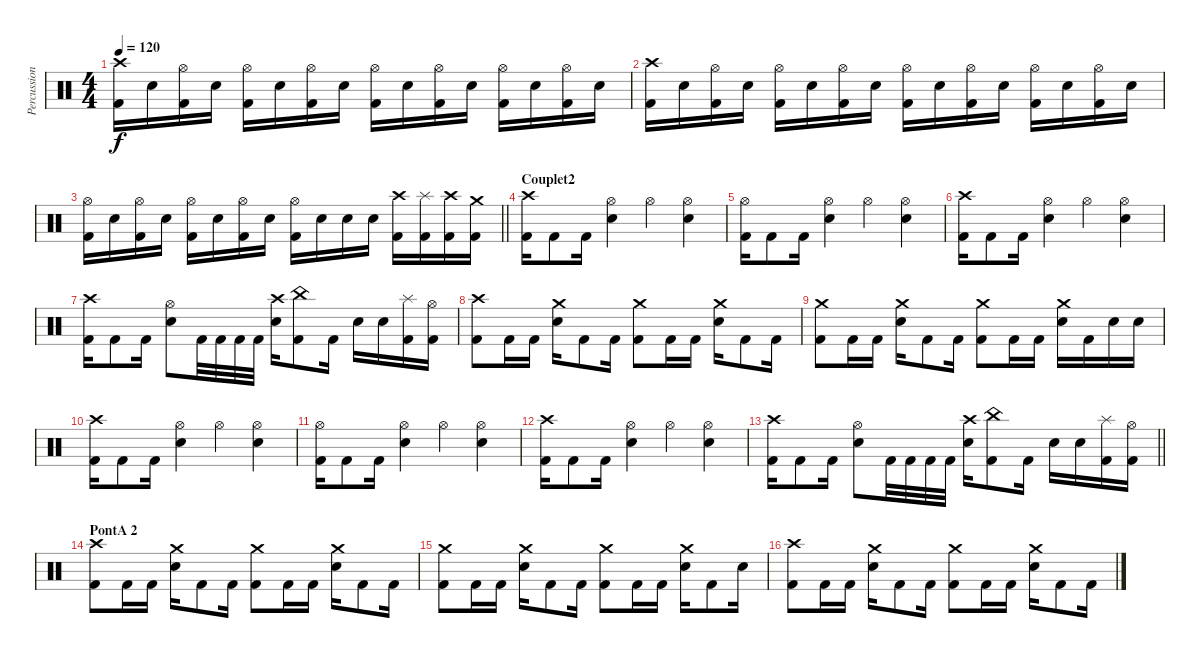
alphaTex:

\track ("Percussion" "Percussion") {instrument percussion}
\staff {score}
\articulation defaults
\ts (4 4)
\tempo 120
\clef neutral
\ks c
("Crash high (hit)" "Kick (hit) 2").16{dy f} "Electric Snare (hit)".16 ("Hi-Hat (open)" "Kick (hit) 2").16 "Electric Snare (hit)".16 ("Hi-Hat (open)" "Kick (hit) 2").16 "Electric Snare (hit)".16 ("Hi-Hat (open)" "Kick (hit) 2").16 "Electric Snare (hit)".16 ("Hi-Hat (open)" "Kick (hit) 2").16 "Electric Snare (hit)".16 ("Hi-Hat (open)" "Kick (hit) 2").16 "Electric Snare (hit)".16 ("Hi-Hat (open)" "Kick (hit) 2").16 "Electric Snare (hit)".16 ("Hi-Hat (open)" "Kick (hit) 2").16 "Electric Snare (hit)".16 |
("Crash high (hit)" "Kick (hit) 2").16 "Electric Snare (hit)".16 ("Hi-Hat (open)" "Kick (hit) 2").16 "Electric Snare (hit)".16 ("Hi-Hat (open)" "Kick (hit) 2").16 "Electric Snare (hit)".16 ("Hi-Hat (open)" "Kick (hit) 2").16 "Electric Snare (hit)".16 ("Hi-Hat (open)" "Kick (hit) 2").16 "Electric Snare (hit)".16 ("Hi-Hat (open)" "Kick (hit) 2").16 "Electric Snare (hit)".16 ("Hi-Hat (open)" "Kick (hit) 2").16 "Electric Snare (hit)".16 ("Hi-Hat (open)" "Kick (hit) 2").16 "Electric Snare (hit)".16 |
\barLineRight lightlight
("Hi-Hat (open)" "Kick (hit) 2").16 "Electric Snare (hit)".16 ("Hi-Hat (open)" "Kick (hit) 2").16 "Electric Snare (hit)".16 ("Hi-Hat (open)" "Kick (hit) 2").16 "Electric Snare (hit)".16 ("Hi-Hat (open)" "Kick (hit) 2").16 "Electric Snare (hit)".16 ("Hi-Hat (open)" "Kick (hit) 2").16 "Electric Snare (hit)".16 "Electric Snare (hit)".16 "Electric Snare (hit)".16 ("Crash high (hit)" "Kick (hit) 2").16 ("Splash (hit)" "Kick (hit) 2").16 ("Crash high (hit)" "Kick (hit) 2").16 ("Crash medium (hit)" "Kick (hit) 2").16 |
\section ("" "Couplet2")
("Crash high (hit)" "Kick (hit) 2").16 "Kick (hit) 2".8 "Kick (hit) 2".16 ("Hi-Hat (open)" "Electric Snare (hit)").4 "Hi-Hat (open)".4 ("Hi-Hat (open)" "Electric Snare (hit)").4 |
("Hi-Hat (open)" "Kick (hit) 2").16 "Kick (hit) 2".8 "Kick (hit) 2".16 ("Hi-Hat (open)" "Electric Snare (hit)").4 "Hi-Hat (open)".4 ("Hi-Hat (open)" "Electric Snare (hit)").4 |
("Crash high (hit)" "Kick (hit) 2").16 "Kick (hit) 2".8 "Kick (hit) 2".16 ("Hi-Hat (open)" "Electric Snare (hit)").4 "Hi-Hat (open)".4 ("Hi-Hat (open)" "Electric Snare (hit)").4 |
("Crash high (hit)" "Kick (hit) 2").16 "Kick (hit) 2".8 "Kick (hit) 2".16 ("Hi-Hat (open)" "Electric Snare (hit)").8 "Kick (hit) 2".32 "Kick (hit) 2".32 "Kick (hit) 2".32 "Kick (hit) 2".32 ("Crash high (hit)" "Electric Snare (hit)").16 ("China (hit)" "Kick (hit) 2").8 "Kick (hit) 2".16 "Electric Snare (hit)".16 "Electric Snare (hit)".16 ("Splash (hit)" "Kick (hit) 2").16 ("Hi-Hat (open)" "Kick (hit) 2").16 |
("Crash high (hit)" "Kick (hit) 2").8 "Kick (hit) 2".16 "Kick (hit) 2".16 ("Crash medium (hit)" "Electric Snare (hit)").16 "Kick (hit) 2".8 "Kick (hit) 2".16 ("Crash medium (hit)" "Kick (hit) 2").8 "Kick (hit) 2".16 "Kick (hit) 2".16 ("Crash medium (hit)" "Electric Snare (hit)").16 "Kick (hit) 2".8 "Kick (hit) 2".16 |
("Crash medium (hit)" "Kick (hit) 2").8 "Kick (hit) 2".16 "Kick (hit) 2".16 ("Crash medium (hit)" "Electric Snare (hit)").16 "Kick (hit) 2".8 "Kick (hit) 2".16 ("Crash medium (hit)" "Kick (hit) 2").8 "Kick (hit) 2".16 "Kick (hit) 2".16 ("Crash medium (hit)" "Electric Snare (hit)").16 "Kick (hit) 2".16 "Electric Snare (hit)".16 "Electric Snare (hit)".16 |
("Crash high (hit)" "Kick (hit) 2").16 "Kick (hit) 2".8 "Kick (hit) 2".16 ("Hi-Hat (open)" "Electric Snare (hit)").4 "Hi-Hat (open)".4 ("Hi-Hat (open)" "Electric Snare (hit)").4 |
("Hi-Hat (open)" "Kick (hit) 2").16 "Kick (hit) 2".8 "Kick (hit) 2".16 ("Hi-Hat (open)" "Electric Snare (hit)").4 "Hi-Hat (open)".4 ("Hi-Hat (open)" "Electric Snare (hit)").4 |
("Crash high (hit)" "Kick (hit) 2").16 "Kick (hit) 2".8 "Kick (hit) 2".16 ("Hi-Hat (open)" "Electric Snare (hit)").4 "Hi-Hat (open)".4 ("Hi-Hat (open)" "Electric Snare (hit)").4 |
\barLineRight lightlight
("Crash high (hit)" "Kick (hit) 2").16 "Kick (hit) 2".8 "Kick (hit) 2".16 ("Hi-Hat (open)" "Electric Snare (hit)").8 "Kick (hit) 2".32 "Kick (hit) 2".32 "Kick (hit) 2".32 "Kick (hit) 2".32 ("Crash high (hit)" "Electric Snare (hit)").16 ("China (hit)" "Kick (hit) 2").8 "Kick (hit) 2".16 "Electric Snare (hit)".16 "Electric Snare (hit)".16 ("Splash (hit)" "Kick (hit) 2").16 ("Hi-Hat (open)" "Kick (hit) 2").16 |
\section ("" "PontA 2")
("Crash high (hit)" "Kick (hit) 2").8 "Kick (hit) 2".16 "Kick (hit) 2".16 ("Crash medium (hit)" "Electric Snare (hit)").16 "Kick (hit) 2".8 "Kick (hit) 2".16 ("Crash medium (hit)" "Kick (hit) 2").8 "Kick (hit) 2".16 "Kick (hit) 2".16 ("Crash medium (hit)" "Electric Snare (hit)").16 "Kick (hit) 2".8 "Kick (hit) 2".16 |
("Crash medium (hit)" "Kick (hit) 2").8 "Kick (hit) 2".16 "Kick (hit) 2".16 ("Crash medium (hit)" "Electric Snare (hit)").16 "Kick (hit) 2".8 "Kick (hit) 2".16 ("Crash medium (hit)" "Kick (hit) 2").8 "Kick (hit) 2".16 "Kick (hit) 2".16 ("Crash medium (hit)" "Electric Snare (hit)").16 "Kick (hit) 2".8 "Electric Snare (hit)".16 |
("Crash high (hit)" "Kick (hit) 2").8 "Kick (hit) 2".16 "Kick (hit) 2".16 ("Crash medium (hit)" "Electric Snare (hit)").16 "Kick (hit) 2".8 "Kick (hit) 2".16 ("Crash medium (hit)" "Kick (hit) 2").8 "Kick (hit) 2".16 "Kick (hit) 2".16 ("Crash medium (hit)" "Electric Snare (hit)").16 "Kick (hit) 2".8 "Kick (hit) 2".16
